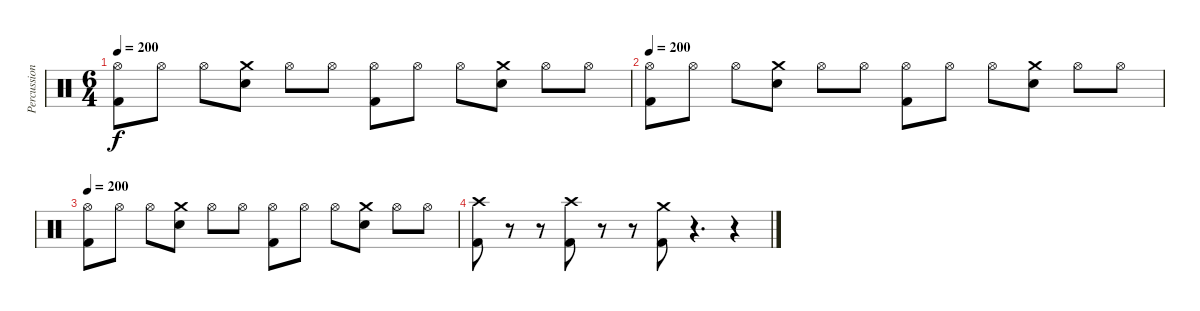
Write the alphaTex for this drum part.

\track ("Percussion" "Percussion") {instrument percussion}
\staff {score}
\articulation defaults
\ts (6 4)
\tempo 200
\clef neutral
\ks c
("Hi-Hat (open)" "Kick (hit) 2").8{dy f} "Hi-Hat (open)".8 "Hi-Hat (open)".8 ("Crash medium (hit)" "Electric Snare (hit)").8 "Hi-Hat (open)".8 "Hi-Hat (open)".8 ("Hi-Hat (open)" "Kick (hit) 2").8 "Hi-Hat (open)".8 "Hi-Hat (open)".8 ("Crash medium (hit)" "Electric Snare (hit)").8 "Hi-Hat (open)".8 "Hi-Hat (open)".8 |
\tempo 200
("Hi-Hat (open)" "Kick (hit) 2").8 "Hi-Hat (open)".8 "Hi-Hat (open)".8 ("Crash medium (hit)" "Electric Snare (hit)").8 "Hi-Hat (open)".8 "Hi-Hat (open)".8 ("Hi-Hat (open)" "Kick (hit) 2").8 "Hi-Hat (open)".8 "Hi-Hat (open)".8 ("Crash medium (hit)" "Electric Snare (hit)").8 "Hi-Hat (open)".8 "Hi-Hat (open)".8 |
\tempo 200
("Hi-Hat (open)" "Kick (hit) 2").8 "Hi-Hat (open)".8 "Hi-Hat (open)".8 ("Crash medium (hit)" "Electric Snare (hit)").8 "Hi-Hat (open)".8 "Hi-Hat (open)".8 ("Hi-Hat (open)" "Kick (hit) 2").8 "Hi-Hat (open)".8 "Hi-Hat (open)".8 ("Crash medium (hit)" "Electric Snare (hit)").8 "Hi-Hat (open)".8 "Hi-Hat (open)".8 |
("Crash high (hit)" "Kick (hit) 2").8 r.8 r.8 ("Crash high (hit)" "Kick (hit) 2").8 r.8 r.8 ("Crash medium (hit)" "Kick (hit) 2").8 r.4{d} r.4
